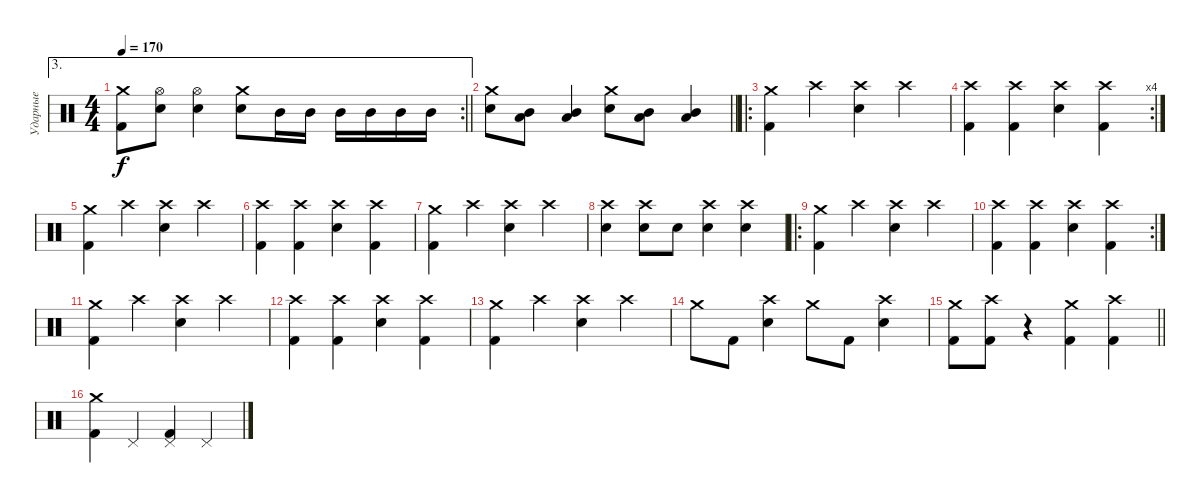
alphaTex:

\track ("Ударные" "Ударные") {instrument percussion}
\staff {score}
\articulation defaults
\ae 3
\rc 2
\ts (4 4)
\tempo 170
\clef neutral
\barLineRight lightlight
\ks c
("Crash medium (hit)" "Kick (hit) 2").8{dy f} ("Hi-Hat (open)" "Snare (hit) 2").8 ("Hi-Hat (open)" "Snare (hit) 2").4 ("Crash medium (hit)" "Snare (hit) 2").8 "Mid Tom (hit)".16 "Mid Tom (hit)".16 "Mid Tom (hit)".16 "Mid Tom (hit)".16 "Mid Tom (hit)".16 "Mid Tom (hit)".16 |
\barLineRight lightlight
("Crash medium (hit)" "Snare (hit) 2").8 ("Mid Tom (hit)" "Low Floor Tom (hit)").8 ("Mid Tom (hit)" "Low Floor Tom (hit)").4 ("Crash medium (hit)" "Snare (hit) 2").8 ("Mid Tom (hit)" "Low Floor Tom (hit)").8 ("Mid Tom (hit)" "Low Floor Tom (hit)").4 |
\ro
("Crash medium (hit)" "Kick (hit) 2").4 "Crash high (hit)".4 ("Crash high (hit)" "Snare (hit) 2").4 "Crash high (hit)".4 |
\rc 4
("Crash high (hit)" "Kick (hit) 2").4 ("Crash high (hit)" "Kick (hit) 2").4 ("Crash high (hit)" "Snare (hit) 2").4 ("Crash high (hit)" "Kick (hit) 2").4 |
("Crash medium (hit)" "Kick (hit) 2").4 "Crash high (hit)".4 ("Crash high (hit)" "Snare (hit) 2").4 "Crash high (hit)".4 |
("Crash high (hit)" "Kick (hit) 2").4 ("Crash high (hit)" "Kick (hit) 2").4 ("Crash high (hit)" "Snare (hit) 2").4 ("Crash high (hit)" "Kick (hit) 2").4 |
("Crash medium (hit)" "Kick (hit) 2").4 "Crash high (hit)".4 ("Crash high (hit)" "Snare (hit) 2").4 "Crash high (hit)".4 |
("Crash high (hit)" "Snare (hit) 2").4 ("Crash high (hit)" "Snare (hit) 2").8 "Snare (hit) 2".8 ("Crash high (hit)" "Snare (hit) 2").4 ("Crash high (hit)" "Snare (hit) 2").4 |
\ro
("Crash medium (hit)" "Kick (hit) 2").4 "Crash high (hit)".4 ("Crash high (hit)" "Snare (hit) 2").4 "Crash high (hit)".4 |
\rc 2
("Crash high (hit)" "Kick (hit) 2").4 ("Crash high (hit)" "Kick (hit) 2").4 ("Crash high (hit)" "Snare (hit) 2").4 ("Crash high (hit)" "Kick (hit) 2").4 |
("Crash medium (hit)" "Kick (hit) 2").4 "Crash high (hit)".4 ("Crash high (hit)" "Snare (hit) 2").4 "Crash high (hit)".4 |
("Crash high (hit)" "Kick (hit) 2").4 ("Crash high (hit)" "Kick (hit) 2").4 ("Crash high (hit)" "Snare (hit) 2").4 ("Crash high (hit)" "Kick (hit) 2").4 |
("Crash medium (hit)" "Kick (hit) 2").4 "Crash high (hit)".4 ("Crash high (hit)" "Snare (hit) 2").4 "Crash high (hit)".4 |
"Crash medium (hit)".8 "Kick (hit) 2".8 ("Crash high (hit)" "Snare (hit) 2").4 "Crash medium (hit)".8 "Kick (hit) 2".8 ("Crash high (hit)" "Snare (hit) 2").4 |
\barLineRight lightlight
("Crash medium (hit)" "Kick (hit) 2").8 ("Crash high (hit)" "Kick (hit) 2").8 r.4 ("Crash medium (hit)" "Kick (hit) 2").4 ("Crash high (hit)" "Kick (hit) 2").4 |
("Crash medium (hit)" "Kick (hit) 2").4 "Pedal Hi-Hat (hit)".4 ("Pedal Hi-Hat (hit)" "Kick (hit) 2").4 "Pedal Hi-Hat (hit)".4
